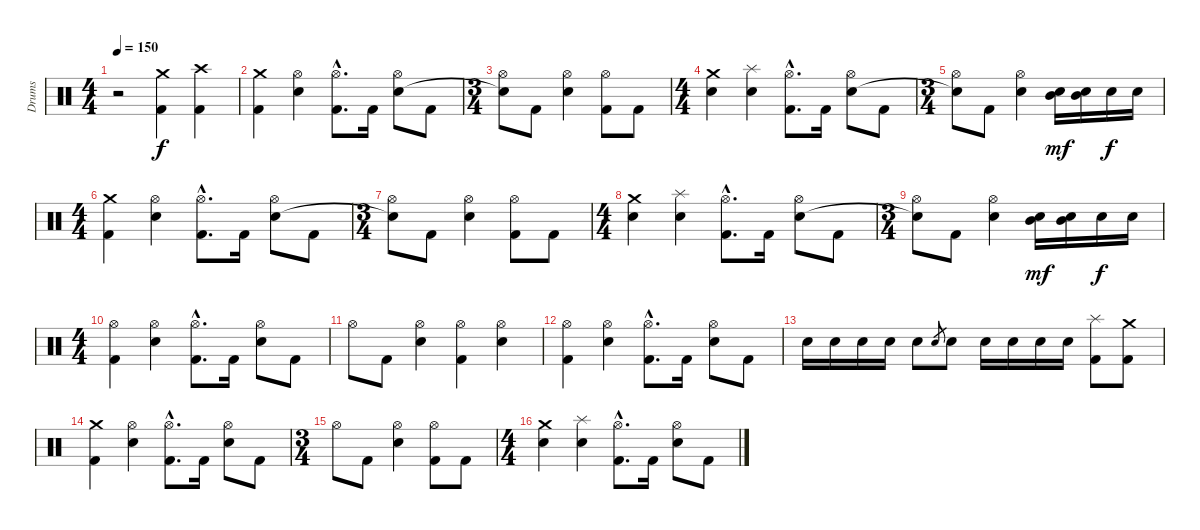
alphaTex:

\track ("Drums" "Drums") {instrument percussion}
\staff {score}
\articulation defaults
\ts (4 4)
\tempo 150
\clef neutral
\ks c
r.2{dy f} ("Crash medium (hit)" "Kick (hit) 2").4 ("Crash high (hit)" "Kick (hit) 2").4 |
("Crash medium (hit)" "Kick (hit) 2").4 ("Hi-Hat (open)" "Electric Snare (hit)").4 ("Hi-Hat (open)"{hac} "Kick (hit) 2"{hac}).8{d} "Kick (hit) 2".16 ("Hi-Hat (open)" "Electric Snare (hit)").8 "Kick (hit) 2".8 |
\ts (3 4)
("Hi-Hat (open)" "Snare (hit)"{t}).8 "Kick (hit) 2".8 ("Hi-Hat (open)" "Electric Snare (hit)").4 ("Hi-Hat (open)" "Kick (hit) 2").8 "Kick (hit) 2".8 |
\ts (4 4)
("Crash medium (hit)" "Electric Snare (hit)").4 ("Splash (hit)" "Electric Snare (hit)").4 ("Hi-Hat (open)"{hac} "Kick (hit) 2"{hac}).8{d} "Kick (hit) 2".16 ("Hi-Hat (open)" "Electric Snare (hit)").8 "Kick (hit) 2".8 |
\ts (3 4)
("Hi-Hat (open)" "Snare (hit)"{t}).8 "Kick (hit) 2".8 ("Hi-Hat (open)" "Electric Snare (hit)").4 ("Mid Tom (hit)" "Electric Snare (hit)").16{dy mf} ("Mid Tom (hit)" "Electric Snare (hit)").16 "Electric Snare (hit)".16{dy f} "Electric Snare (hit)".16 |
\ts (4 4)
("Crash medium (hit)" "Kick (hit) 2").4 ("Hi-Hat (open)" "Electric Snare (hit)").4 ("Hi-Hat (open)"{hac} "Kick (hit) 2"{hac}).8{d} "Kick (hit) 2".16 ("Hi-Hat (open)" "Electric Snare (hit)").8 "Kick (hit) 2".8 |
\ts (3 4)
("Hi-Hat (open)" "Snare (hit)"{t}).8 "Kick (hit) 2".8 ("Hi-Hat (open)" "Electric Snare (hit)").4 ("Hi-Hat (open)" "Kick (hit) 2").8 "Kick (hit) 2".8 |
\ts (4 4)
("Crash medium (hit)" "Electric Snare (hit)").4 ("Splash (hit)" "Electric Snare (hit)").4 ("Hi-Hat (open)"{hac} "Kick (hit) 2"{hac}).8{d} "Kick (hit) 2".16 ("Hi-Hat (open)" "Electric Snare (hit)").8 "Kick (hit) 2".8 |
\ts (3 4)
("Hi-Hat (open)" "Snare (hit)"{t}).8 "Kick (hit) 2".8 ("Hi-Hat (open)" "Electric Snare (hit)").4 ("Mid Tom (hit)" "Electric Snare (hit)").16{dy mf} ("Mid Tom (hit)" "Electric Snare (hit)").16 "Electric Snare (hit)".16{dy f} "Electric Snare (hit)".16 |
\ts (4 4)
("Hi-Hat (open)" "Kick (hit) 2").4 ("Hi-Hat (open)" "Electric Snare (hit)").4 ("Hi-Hat (open)"{hac} "Kick (hit) 2"{hac}).8{d} "Kick (hit) 2".16 ("Hi-Hat (open)" "Electric Snare (hit)").8 "Kick (hit) 2".8 |
"Hi-Hat (open)".8 "Kick (hit) 2".8 ("Hi-Hat (open)" "Electric Snare (hit)").4 ("Hi-Hat (open)" "Kick (hit) 2").4 ("Hi-Hat (open)" "Electric Snare (hit)").4 |
("Hi-Hat (open)" "Kick (hit) 2").4 ("Hi-Hat (open)" "Electric Snare (hit)").4 ("Hi-Hat (open)"{hac} "Kick (hit) 2"{hac}).8{d} "Kick (hit) 2".16 ("Hi-Hat (open)" "Electric Snare (hit)").8 "Kick (hit) 2".8 |
"Electric Snare (hit)".16 "Electric Snare (hit)".16 "Electric Snare (hit)".16 "Electric Snare (hit)".16 "Electric Snare (hit)".8 "Electric Snare (hit)".8{gr} "Electric Snare (hit)".8 "Electric Snare (hit)".16 "Electric Snare (hit)".16 "Electric Snare (hit)".16 "Electric Snare (hit)".16 ("Splash (hit)" "Kick (hit) 2").8 ("Crash medium (hit)" "Kick (hit) 2").8 |
("Crash medium (hit)" "Kick (hit) 2").4 ("Hi-Hat (open)" "Electric Snare (hit)").4 ("Hi-Hat (open)"{hac} "Kick (hit) 2"{hac}).8{d} "Kick (hit) 2".16 ("Hi-Hat (open)" "Electric Snare (hit)").8 "Kick (hit) 2".8 |
\ts (3 4)
"Hi-Hat (open)".8 "Kick (hit) 2".8 ("Hi-Hat (open)" "Electric Snare (hit)").4 ("Hi-Hat (open)" "Kick (hit) 2").8 "Kick (hit) 2".8 |
\ts (4 4)
("Crash medium (hit)" "Electric Snare (hit)").4 ("Splash (hit)" "Electric Snare (hit)").4 ("Hi-Hat (open)"{hac} "Kick (hit) 2"{hac}).8{d} "Kick (hit) 2".16 ("Hi-Hat (open)" "Electric Snare (hit)").8 "Kick (hit) 2".8
